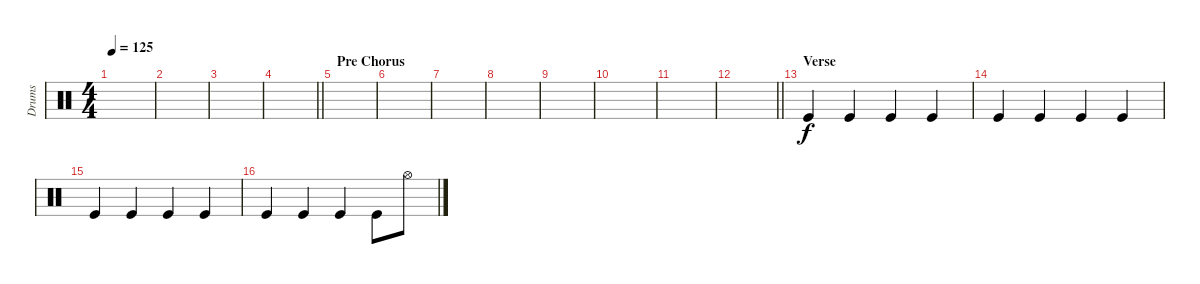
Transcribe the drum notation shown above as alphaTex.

\track ("Drums" "Drums") {instrument percussion}
\staff
\articulation defaults
\ts (4 4)
\tempo 125
\clef neutral
\ks c
|
|
|
\barLineRight lightlight
|
\section ("" "Pre Chorus")
|
|
|
|
|
|
|
\barLineRight lightlight
|
\section ("" "Verse")
"Kick (hit)".4 "Kick (hit)".4 "Kick (hit)".4 "Kick (hit)".4 |
"Kick (hit)".4 "Kick (hit)".4 "Kick (hit)".4 "Kick (hit)".4 |
"Kick (hit)".4 "Kick (hit)".4 "Kick (hit)".4 "Kick (hit)".4 |
"Kick (hit)".4 "Kick (hit)".4 "Kick (hit)".4 "Kick (hit)".8 "Hi-Hat (open)".8
